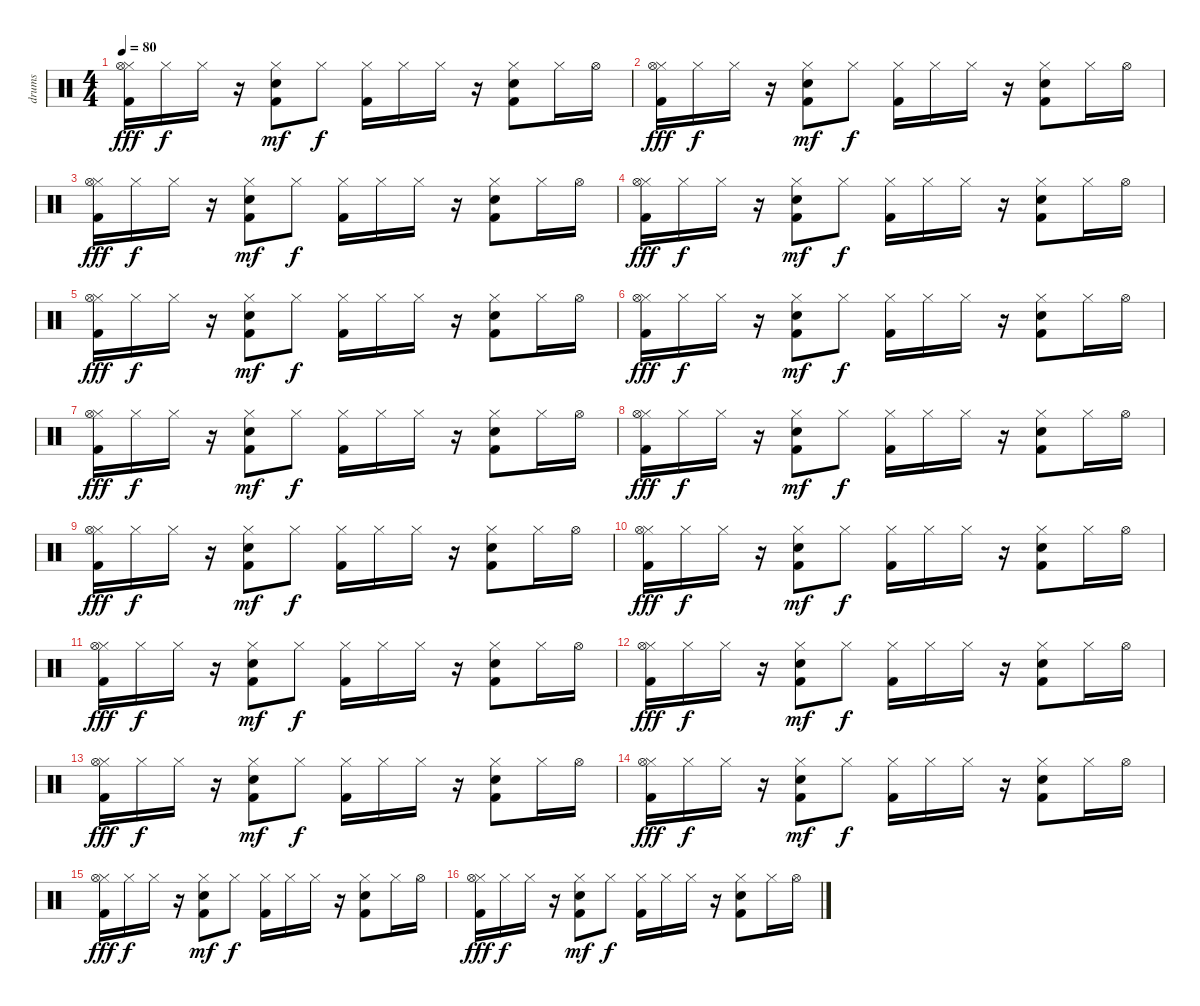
\track ("drums" "drums") {instrument percussion}
\staff {score}
\articulation defaults
\ts (4 4)
\tempo 80
\clef neutral
\ks c
("Hi-Hat (closed)" "Hi-Hat (open)" "Kick (hit) 2").16{dy fff} "Hi-Hat (closed)".16{dy f} "Hi-Hat (closed)".16 r.16 ("Kick (hit) 2" "Snare (hit) 2" "Hi-Hat (closed)").8{dy mf} "Hi-Hat (closed)".8{dy f} ("Kick (hit) 2" "Hi-Hat (closed)").16 "Hi-Hat (closed)".16 "Hi-Hat (closed)".16 r.16 ("Kick (hit) 2" "Hi-Hat (closed)" "Snare (hit) 2").8 "Hi-Hat (closed)".16 "Hi-Hat (open)".16 |
("Hi-Hat (closed)" "Hi-Hat (open)" "Kick (hit) 2").16{dy fff} "Hi-Hat (closed)".16{dy f} "Hi-Hat (closed)".16 r.16 ("Kick (hit) 2" "Snare (hit) 2" "Hi-Hat (closed)").8{dy mf} "Hi-Hat (closed)".8{dy f} ("Kick (hit) 2" "Hi-Hat (closed)").16 "Hi-Hat (closed)".16 "Hi-Hat (closed)".16 r.16 ("Kick (hit) 2" "Hi-Hat (closed)" "Snare (hit) 2").8 "Hi-Hat (closed)".16 "Hi-Hat (open)".16 |
("Hi-Hat (closed)" "Hi-Hat (open)" "Kick (hit) 2").16{dy fff} "Hi-Hat (closed)".16{dy f} "Hi-Hat (closed)".16 r.16 ("Kick (hit) 2" "Snare (hit) 2" "Hi-Hat (closed)").8{dy mf} "Hi-Hat (closed)".8{dy f} ("Kick (hit) 2" "Hi-Hat (closed)").16 "Hi-Hat (closed)".16 "Hi-Hat (closed)".16 r.16 ("Kick (hit) 2" "Hi-Hat (closed)" "Snare (hit) 2").8 "Hi-Hat (closed)".16 "Hi-Hat (open)".16 |
("Hi-Hat (closed)" "Hi-Hat (open)" "Kick (hit) 2").16{dy fff} "Hi-Hat (closed)".16{dy f} "Hi-Hat (closed)".16 r.16 ("Kick (hit) 2" "Snare (hit) 2" "Hi-Hat (closed)").8{dy mf} "Hi-Hat (closed)".8{dy f} ("Kick (hit) 2" "Hi-Hat (closed)").16 "Hi-Hat (closed)".16 "Hi-Hat (closed)".16 r.16 ("Kick (hit) 2" "Hi-Hat (closed)" "Snare (hit) 2").8 "Hi-Hat (closed)".16 "Hi-Hat (open)".16 |
("Hi-Hat (closed)" "Hi-Hat (open)" "Kick (hit) 2").16{dy fff} "Hi-Hat (closed)".16{dy f} "Hi-Hat (closed)".16 r.16 ("Kick (hit) 2" "Snare (hit) 2" "Hi-Hat (closed)").8{dy mf} "Hi-Hat (closed)".8{dy f} ("Kick (hit) 2" "Hi-Hat (closed)").16 "Hi-Hat (closed)".16 "Hi-Hat (closed)".16 r.16 ("Kick (hit) 2" "Hi-Hat (closed)" "Snare (hit) 2").8 "Hi-Hat (closed)".16 "Hi-Hat (open)".16 |
("Hi-Hat (closed)" "Hi-Hat (open)" "Kick (hit) 2").16{dy fff} "Hi-Hat (closed)".16{dy f} "Hi-Hat (closed)".16 r.16 ("Kick (hit) 2" "Snare (hit) 2" "Hi-Hat (closed)").8{dy mf} "Hi-Hat (closed)".8{dy f} ("Kick (hit) 2" "Hi-Hat (closed)").16 "Hi-Hat (closed)".16 "Hi-Hat (closed)".16 r.16 ("Kick (hit) 2" "Hi-Hat (closed)" "Snare (hit) 2").8 "Hi-Hat (closed)".16 "Hi-Hat (open)".16 |
("Hi-Hat (closed)" "Hi-Hat (open)" "Kick (hit) 2").16{dy fff} "Hi-Hat (closed)".16{dy f} "Hi-Hat (closed)".16 r.16 ("Kick (hit) 2" "Snare (hit) 2" "Hi-Hat (closed)").8{dy mf} "Hi-Hat (closed)".8{dy f} ("Kick (hit) 2" "Hi-Hat (closed)").16 "Hi-Hat (closed)".16 "Hi-Hat (closed)".16 r.16 ("Kick (hit) 2" "Hi-Hat (closed)" "Snare (hit) 2").8 "Hi-Hat (closed)".16 "Hi-Hat (open)".16 |
("Hi-Hat (closed)" "Hi-Hat (open)" "Kick (hit) 2").16{dy fff} "Hi-Hat (closed)".16{dy f} "Hi-Hat (closed)".16 r.16 ("Kick (hit) 2" "Snare (hit) 2" "Hi-Hat (closed)").8{dy mf} "Hi-Hat (closed)".8{dy f} ("Kick (hit) 2" "Hi-Hat (closed)").16 "Hi-Hat (closed)".16 "Hi-Hat (closed)".16 r.16 ("Kick (hit) 2" "Hi-Hat (closed)" "Snare (hit) 2").8 "Hi-Hat (closed)".16 "Hi-Hat (open)".16 |
("Hi-Hat (closed)" "Hi-Hat (open)" "Kick (hit) 2").16{dy fff} "Hi-Hat (closed)".16{dy f} "Hi-Hat (closed)".16 r.16 ("Kick (hit) 2" "Snare (hit) 2" "Hi-Hat (closed)").8{dy mf} "Hi-Hat (closed)".8{dy f} ("Kick (hit) 2" "Hi-Hat (closed)").16 "Hi-Hat (closed)".16 "Hi-Hat (closed)".16 r.16 ("Kick (hit) 2" "Hi-Hat (closed)" "Snare (hit) 2").8 "Hi-Hat (closed)".16 "Hi-Hat (open)".16 |
("Hi-Hat (closed)" "Hi-Hat (open)" "Kick (hit) 2").16{dy fff} "Hi-Hat (closed)".16{dy f} "Hi-Hat (closed)".16 r.16 ("Kick (hit) 2" "Snare (hit) 2" "Hi-Hat (closed)").8{dy mf} "Hi-Hat (closed)".8{dy f} ("Kick (hit) 2" "Hi-Hat (closed)").16 "Hi-Hat (closed)".16 "Hi-Hat (closed)".16 r.16 ("Kick (hit) 2" "Hi-Hat (closed)" "Snare (hit) 2").8 "Hi-Hat (closed)".16 "Hi-Hat (open)".16 |
("Hi-Hat (closed)" "Hi-Hat (open)" "Kick (hit) 2").16{dy fff} "Hi-Hat (closed)".16{dy f} "Hi-Hat (closed)".16 r.16 ("Kick (hit) 2" "Snare (hit) 2" "Hi-Hat (closed)").8{dy mf} "Hi-Hat (closed)".8{dy f} ("Kick (hit) 2" "Hi-Hat (closed)").16 "Hi-Hat (closed)".16 "Hi-Hat (closed)".16 r.16 ("Kick (hit) 2" "Hi-Hat (closed)" "Snare (hit) 2").8 "Hi-Hat (closed)".16 "Hi-Hat (open)".16 |
("Hi-Hat (closed)" "Hi-Hat (open)" "Kick (hit) 2").16{dy fff} "Hi-Hat (closed)".16{dy f} "Hi-Hat (closed)".16 r.16 ("Kick (hit) 2" "Snare (hit) 2" "Hi-Hat (closed)").8{dy mf} "Hi-Hat (closed)".8{dy f} ("Kick (hit) 2" "Hi-Hat (closed)").16 "Hi-Hat (closed)".16 "Hi-Hat (closed)".16 r.16 ("Kick (hit) 2" "Hi-Hat (closed)" "Snare (hit) 2").8 "Hi-Hat (closed)".16 "Hi-Hat (open)".16 |
("Hi-Hat (closed)" "Hi-Hat (open)" "Kick (hit) 2").16{dy fff} "Hi-Hat (closed)".16{dy f} "Hi-Hat (closed)".16 r.16 ("Kick (hit) 2" "Snare (hit) 2" "Hi-Hat (closed)").8{dy mf} "Hi-Hat (closed)".8{dy f} ("Kick (hit) 2" "Hi-Hat (closed)").16 "Hi-Hat (closed)".16 "Hi-Hat (closed)".16 r.16 ("Kick (hit) 2" "Hi-Hat (closed)" "Snare (hit) 2").8 "Hi-Hat (closed)".16 "Hi-Hat (open)".16 |
("Hi-Hat (closed)" "Hi-Hat (open)" "Kick (hit) 2").16{dy fff} "Hi-Hat (closed)".16{dy f} "Hi-Hat (closed)".16 r.16 ("Kick (hit) 2" "Snare (hit) 2" "Hi-Hat (closed)").8{dy mf} "Hi-Hat (closed)".8{dy f} ("Kick (hit) 2" "Hi-Hat (closed)").16 "Hi-Hat (closed)".16 "Hi-Hat (closed)".16 r.16 ("Kick (hit) 2" "Hi-Hat (closed)" "Snare (hit) 2").8 "Hi-Hat (closed)".16 "Hi-Hat (open)".16 |
("Hi-Hat (closed)" "Hi-Hat (open)" "Kick (hit) 2").16{dy fff} "Hi-Hat (closed)".16{dy f} "Hi-Hat (closed)".16 r.16 ("Kick (hit) 2" "Snare (hit) 2" "Hi-Hat (closed)").8{dy mf} "Hi-Hat (closed)".8{dy f} ("Kick (hit) 2" "Hi-Hat (closed)").16 "Hi-Hat (closed)".16 "Hi-Hat (closed)".16 r.16 ("Kick (hit) 2" "Hi-Hat (closed)" "Snare (hit) 2").8 "Hi-Hat (closed)".16 "Hi-Hat (open)".16 |
("Hi-Hat (closed)" "Hi-Hat (open)" "Kick (hit) 2").16{dy fff} "Hi-Hat (closed)".16{dy f} "Hi-Hat (closed)".16 r.16 ("Kick (hit) 2" "Snare (hit) 2" "Hi-Hat (closed)").8{dy mf} "Hi-Hat (closed)".8{dy f} ("Kick (hit) 2" "Hi-Hat (closed)").16 "Hi-Hat (closed)".16 "Hi-Hat (closed)".16 r.16 ("Kick (hit) 2" "Hi-Hat (closed)" "Snare (hit) 2").8 "Hi-Hat (closed)".16 "Hi-Hat (open)".16
